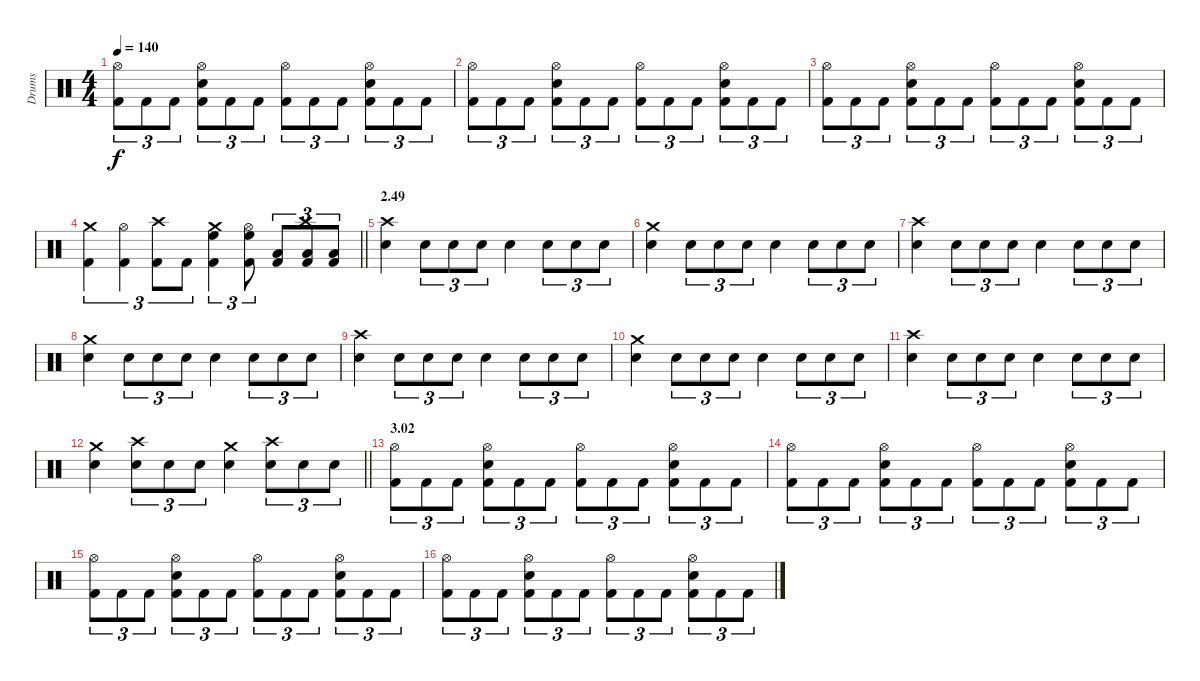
\track ("Drums" "Drums") {instrument percussion}
\staff {score}
\articulation defaults
\ts (4 4)
\tempo 140
\clef neutral
\ks c
("Hi-Hat (open)" "Kick (hit) 2").8{tu (3 2) dy f} "Kick (hit) 2".8{tu (3 2)} "Kick (hit) 2".8{tu (3 2)} ("Hi-Hat (open)" "Electric Snare (hit)" "Kick (hit) 2").8{tu (3 2)} "Kick (hit) 2".8{tu (3 2)} "Kick (hit) 2".8{tu (3 2)} ("Hi-Hat (open)" "Kick (hit) 2").8{tu (3 2)} "Kick (hit) 2".8{tu (3 2)} "Kick (hit) 2".8{tu (3 2)} ("Hi-Hat (open)" "Electric Snare (hit)" "Kick (hit) 2").8{tu (3 2)} "Kick (hit) 2".8{tu (3 2)} "Kick (hit) 2".8{tu (3 2)} |
("Hi-Hat (open)" "Kick (hit) 2").8{tu (3 2)} "Kick (hit) 2".8{tu (3 2)} "Kick (hit) 2".8{tu (3 2)} ("Hi-Hat (open)" "Electric Snare (hit)" "Kick (hit) 2").8{tu (3 2)} "Kick (hit) 2".8{tu (3 2)} "Kick (hit) 2".8{tu (3 2)} ("Hi-Hat (open)" "Kick (hit) 2").8{tu (3 2)} "Kick (hit) 2".8{tu (3 2)} "Kick (hit) 2".8{tu (3 2)} ("Hi-Hat (open)" "Electric Snare (hit)" "Kick (hit) 2").8{tu (3 2)} "Kick (hit) 2".8{tu (3 2)} "Kick (hit) 2".8{tu (3 2)} |
("Hi-Hat (open)" "Kick (hit) 2").8{tu (3 2)} "Kick (hit) 2".8{tu (3 2)} "Kick (hit) 2".8{tu (3 2)} ("Hi-Hat (open)" "Electric Snare (hit)" "Kick (hit) 2").8{tu (3 2)} "Kick (hit) 2".8{tu (3 2)} "Kick (hit) 2".8{tu (3 2)} ("Hi-Hat (open)" "Kick (hit) 2").8{tu (3 2)} "Kick (hit) 2".8{tu (3 2)} "Kick (hit) 2".8{tu (3 2)} ("Hi-Hat (open)" "Electric Snare (hit)" "Kick (hit) 2").8{tu (3 2)} "Kick (hit) 2".8{tu (3 2)} "Kick (hit) 2".8{tu (3 2)} |
\barLineRight lightlight
("Crash medium (hit)" "Kick (hit) 2").4{tu (3 2)} ("Hi-Hat (open)" "Kick (hit) 2").4{tu (3 2)} ("Crash high (hit)" "Kick (hit) 2").8{tu (3 2)} "Kick (hit) 2".8{tu (3 2)} ("Crash medium (hit)" "High Floor Tom (hit)" "Kick (hit) 2").4{tu (3 2)} ("Hi-Hat (open)" "High Floor Tom (hit)" "Kick (hit) 2").8{tu (3 2)} ("Low Tom (hit)" "Kick (hit) 2").8{tu (3 2)} ("Crash high (hit)" "Low Tom (hit)" "Kick (hit) 2").8{tu (3 2)} ("Low Tom (hit)" "Kick (hit) 2").8{tu (3 2)} |
\section ("" "2.49")
("Crash high (hit)" "Snare (hit) 2").4 "Snare (hit) 2".8{tu (3 2)} "Snare (hit) 2".8{tu (3 2)} "Snare (hit) 2".8{tu (3 2)} "Snare (hit) 2".4 "Snare (hit) 2".8{tu (3 2)} "Snare (hit) 2".8{tu (3 2)} "Snare (hit) 2".8{tu (3 2)} |
("Crash medium (hit)" "Snare (hit) 2").4 "Snare (hit) 2".8{tu (3 2)} "Snare (hit) 2".8{tu (3 2)} "Snare (hit) 2".8{tu (3 2)} "Snare (hit) 2".4 "Snare (hit) 2".8{tu (3 2)} "Snare (hit) 2".8{tu (3 2)} "Snare (hit) 2".8{tu (3 2)} |
("Crash high (hit)" "Snare (hit) 2").4 "Snare (hit) 2".8{tu (3 2)} "Snare (hit) 2".8{tu (3 2)} "Snare (hit) 2".8{tu (3 2)} "Snare (hit) 2".4 "Snare (hit) 2".8{tu (3 2)} "Snare (hit) 2".8{tu (3 2)} "Snare (hit) 2".8{tu (3 2)} |
("Crash medium (hit)" "Snare (hit) 2").4 "Snare (hit) 2".8{tu (3 2)} "Snare (hit) 2".8{tu (3 2)} "Snare (hit) 2".8{tu (3 2)} "Snare (hit) 2".4 "Snare (hit) 2".8{tu (3 2)} "Snare (hit) 2".8{tu (3 2)} "Snare (hit) 2".8{tu (3 2)} |
("Crash high (hit)" "Snare (hit) 2").4 "Snare (hit) 2".8{tu (3 2)} "Snare (hit) 2".8{tu (3 2)} "Snare (hit) 2".8{tu (3 2)} "Snare (hit) 2".4 "Snare (hit) 2".8{tu (3 2)} "Snare (hit) 2".8{tu (3 2)} "Snare (hit) 2".8{tu (3 2)} |
("Crash medium (hit)" "Snare (hit) 2").4 "Snare (hit) 2".8{tu (3 2)} "Snare (hit) 2".8{tu (3 2)} "Snare (hit) 2".8{tu (3 2)} "Snare (hit) 2".4 "Snare (hit) 2".8{tu (3 2)} "Snare (hit) 2".8{tu (3 2)} "Snare (hit) 2".8{tu (3 2)} |
("Crash high (hit)" "Snare (hit) 2").4 "Snare (hit) 2".8{tu (3 2)} "Snare (hit) 2".8{tu (3 2)} "Snare (hit) 2".8{tu (3 2)} "Snare (hit) 2".4 "Snare (hit) 2".8{tu (3 2)} "Snare (hit) 2".8{tu (3 2)} "Snare (hit) 2".8{tu (3 2)} |
\barLineRight lightlight
("Crash medium (hit)" "Snare (hit) 2").4 ("Crash high (hit)" "Snare (hit) 2").8{tu (3 2)} "Snare (hit) 2".8{tu (3 2)} "Snare (hit) 2".8{tu (3 2)} ("Crash medium (hit)" "Snare (hit) 2").4 ("Crash high (hit)" "Snare (hit) 2").8{tu (3 2)} "Snare (hit) 2".8{tu (3 2)} "Snare (hit) 2".8{tu (3 2)} |
\section ("" "3.02")
("Hi-Hat (open)" "Kick (hit) 2").8{tu (3 2)} "Kick (hit) 2".8{tu (3 2)} "Kick (hit) 2".8{tu (3 2)} ("Hi-Hat (open)" "Electric Snare (hit)" "Kick (hit) 2").8{tu (3 2)} "Kick (hit) 2".8{tu (3 2)} "Kick (hit) 2".8{tu (3 2)} ("Hi-Hat (open)" "Kick (hit) 2").8{tu (3 2)} "Kick (hit) 2".8{tu (3 2)} "Kick (hit) 2".8{tu (3 2)} ("Hi-Hat (open)" "Electric Snare (hit)" "Kick (hit) 2").8{tu (3 2)} "Kick (hit) 2".8{tu (3 2)} "Kick (hit) 2".8{tu (3 2)} |
("Hi-Hat (open)" "Kick (hit) 2").8{tu (3 2)} "Kick (hit) 2".8{tu (3 2)} "Kick (hit) 2".8{tu (3 2)} ("Hi-Hat (open)" "Electric Snare (hit)" "Kick (hit) 2").8{tu (3 2)} "Kick (hit) 2".8{tu (3 2)} "Kick (hit) 2".8{tu (3 2)} ("Hi-Hat (open)" "Kick (hit) 2").8{tu (3 2)} "Kick (hit) 2".8{tu (3 2)} "Kick (hit) 2".8{tu (3 2)} ("Hi-Hat (open)" "Electric Snare (hit)" "Kick (hit) 2").8{tu (3 2)} "Kick (hit) 2".8{tu (3 2)} "Kick (hit) 2".8{tu (3 2)} |
("Hi-Hat (open)" "Kick (hit) 2").8{tu (3 2)} "Kick (hit) 2".8{tu (3 2)} "Kick (hit) 2".8{tu (3 2)} ("Hi-Hat (open)" "Electric Snare (hit)" "Kick (hit) 2").8{tu (3 2)} "Kick (hit) 2".8{tu (3 2)} "Kick (hit) 2".8{tu (3 2)} ("Hi-Hat (open)" "Kick (hit) 2").8{tu (3 2)} "Kick (hit) 2".8{tu (3 2)} "Kick (hit) 2".8{tu (3 2)} ("Hi-Hat (open)" "Electric Snare (hit)" "Kick (hit) 2").8{tu (3 2)} "Kick (hit) 2".8{tu (3 2)} "Kick (hit) 2".8{tu (3 2)} |
("Hi-Hat (open)" "Kick (hit) 2").8{tu (3 2)} "Kick (hit) 2".8{tu (3 2)} "Kick (hit) 2".8{tu (3 2)} ("Hi-Hat (open)" "Electric Snare (hit)" "Kick (hit) 2").8{tu (3 2)} "Kick (hit) 2".8{tu (3 2)} "Kick (hit) 2".8{tu (3 2)} ("Hi-Hat (open)" "Kick (hit) 2").8{tu (3 2)} "Kick (hit) 2".8{tu (3 2)} "Kick (hit) 2".8{tu (3 2)} ("Hi-Hat (open)" "Electric Snare (hit)" "Kick (hit) 2").8{tu (3 2)} "Kick (hit) 2".8{tu (3 2)} "Kick (hit) 2".8{tu (3 2)}
